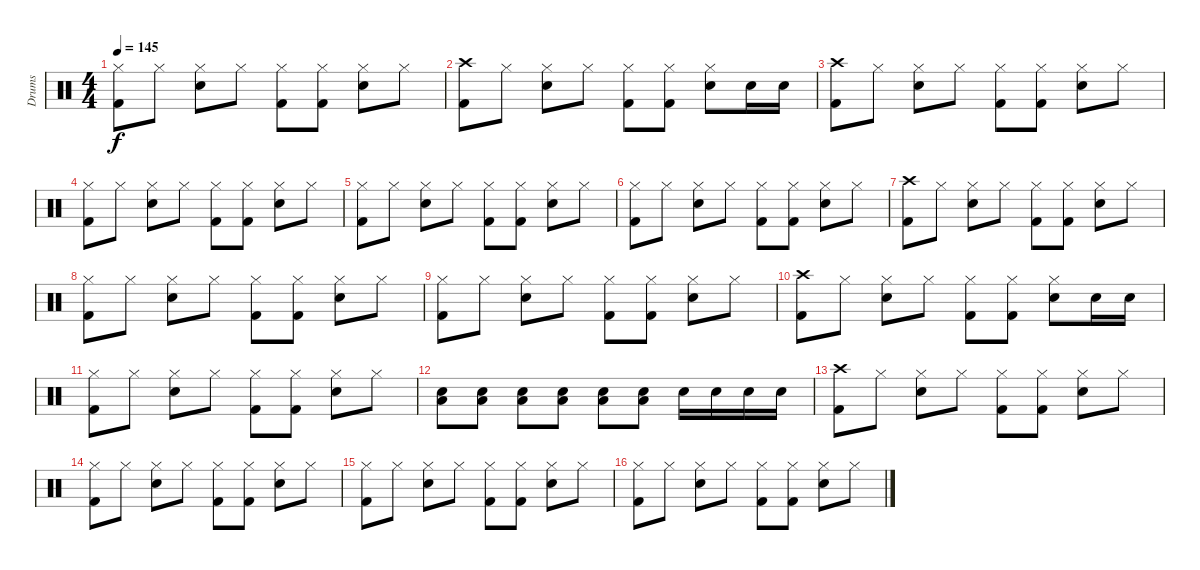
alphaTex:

\track ("Drums" "Drums") {instrument percussion}
\staff {score}
\articulation defaults
\ts (4 4)
\tempo 145
\clef neutral
\ks c
("Hi-Hat (closed)" "Kick (hit) 2").8{dy f} "Hi-Hat (closed)".8 ("Hi-Hat (closed)" "Electric Snare (hit)").8 "Hi-Hat (closed)".8 ("Hi-Hat (closed)" "Kick (hit) 2").8 ("Hi-Hat (closed)" "Kick (hit) 2").8 ("Hi-Hat (closed)" "Electric Snare (hit)").8 "Hi-Hat (closed)".8 |
("Crash high (hit)" "Kick (hit) 2").8 "Hi-Hat (closed)".8 ("Hi-Hat (closed)" "Electric Snare (hit)").8 "Hi-Hat (closed)".8 ("Hi-Hat (closed)" "Kick (hit) 2").8 ("Hi-Hat (closed)" "Kick (hit) 2").8 ("Hi-Hat (closed)" "Electric Snare (hit)").8 "Electric Snare (hit)".16 "Electric Snare (hit)".16 |
("Crash high (hit)" "Kick (hit) 2").8 "Hi-Hat (closed)".8 ("Hi-Hat (closed)" "Electric Snare (hit)").8 "Hi-Hat (closed)".8 ("Hi-Hat (closed)" "Kick (hit) 2").8 ("Hi-Hat (closed)" "Kick (hit) 2").8 ("Hi-Hat (closed)" "Electric Snare (hit)").8 "Hi-Hat (closed)".8 |
("Hi-Hat (closed)" "Kick (hit) 2").8 "Hi-Hat (closed)".8 ("Hi-Hat (closed)" "Electric Snare (hit)").8 "Hi-Hat (closed)".8 ("Hi-Hat (closed)" "Kick (hit) 2").8 ("Hi-Hat (closed)" "Kick (hit) 2").8 ("Hi-Hat (closed)" "Electric Snare (hit)").8 "Hi-Hat (closed)".8 |
("Hi-Hat (closed)" "Kick (hit) 2").8 "Hi-Hat (closed)".8 ("Hi-Hat (closed)" "Electric Snare (hit)").8 "Hi-Hat (closed)".8 ("Hi-Hat (closed)" "Kick (hit) 2").8 ("Hi-Hat (closed)" "Kick (hit) 2").8 ("Hi-Hat (closed)" "Electric Snare (hit)").8 "Hi-Hat (closed)".8 |
("Hi-Hat (closed)" "Kick (hit) 2").8 "Hi-Hat (closed)".8 ("Hi-Hat (closed)" "Electric Snare (hit)").8 "Hi-Hat (closed)".8 ("Hi-Hat (closed)" "Kick (hit) 2").8 ("Hi-Hat (closed)" "Kick (hit) 2").8 ("Hi-Hat (closed)" "Electric Snare (hit)").8 "Hi-Hat (closed)".8 |
("Crash high (hit)" "Kick (hit) 2").8 "Hi-Hat (closed)".8 ("Hi-Hat (closed)" "Electric Snare (hit)").8 "Hi-Hat (closed)".8 ("Hi-Hat (closed)" "Kick (hit) 2").8 ("Hi-Hat (closed)" "Kick (hit) 2").8 ("Hi-Hat (closed)" "Electric Snare (hit)").8 "Hi-Hat (closed)".8 |
("Hi-Hat (closed)" "Kick (hit) 2").8 "Hi-Hat (closed)".8 ("Hi-Hat (closed)" "Electric Snare (hit)").8 "Hi-Hat (closed)".8 ("Hi-Hat (closed)" "Kick (hit) 2").8 ("Hi-Hat (closed)" "Kick (hit) 2").8 ("Hi-Hat (closed)" "Electric Snare (hit)").8 "Hi-Hat (closed)".8 |
("Hi-Hat (closed)" "Kick (hit) 2").8 "Hi-Hat (closed)".8 ("Hi-Hat (closed)" "Electric Snare (hit)").8 "Hi-Hat (closed)".8 ("Hi-Hat (closed)" "Kick (hit) 2").8 ("Hi-Hat (closed)" "Kick (hit) 2").8 ("Hi-Hat (closed)" "Electric Snare (hit)").8 "Hi-Hat (closed)".8 |
("Crash high (hit)" "Kick (hit) 2").8 "Hi-Hat (closed)".8 ("Hi-Hat (closed)" "Electric Snare (hit)").8 "Hi-Hat (closed)".8 ("Hi-Hat (closed)" "Kick (hit) 2").8 ("Hi-Hat (closed)" "Kick (hit) 2").8 ("Hi-Hat (closed)" "Electric Snare (hit)").8 "Electric Snare (hit)".16 "Electric Snare (hit)".16 |
("Hi-Hat (closed)" "Kick (hit) 2").8 "Hi-Hat (closed)".8 ("Hi-Hat (closed)" "Electric Snare (hit)").8 "Hi-Hat (closed)".8 ("Hi-Hat (closed)" "Kick (hit) 2").8 ("Hi-Hat (closed)" "Kick (hit) 2").8 ("Hi-Hat (closed)" "Electric Snare (hit)").8 "Hi-Hat (closed)".8 |
("Electric Snare (hit)" "Low Floor Tom (hit)").8 ("Electric Snare (hit)" "Low Floor Tom (hit)").8 ("Electric Snare (hit)" "Low Floor Tom (hit)").8 ("Electric Snare (hit)" "Low Floor Tom (hit)").8 ("Electric Snare (hit)" "Low Floor Tom (hit)").8 ("Electric Snare (hit)" "Low Floor Tom (hit)").8 "Electric Snare (hit)".16 "Electric Snare (hit)".16 "Electric Snare (hit)".16 "Electric Snare (hit)".16 |
("Crash high (hit)" "Kick (hit) 2").8 "Hi-Hat (closed)".8 ("Hi-Hat (closed)" "Electric Snare (hit)").8 "Hi-Hat (closed)".8 ("Hi-Hat (closed)" "Kick (hit) 2").8 ("Hi-Hat (closed)" "Kick (hit) 2").8 ("Hi-Hat (closed)" "Electric Snare (hit)").8 "Hi-Hat (closed)".8 |
("Hi-Hat (closed)" "Kick (hit) 2").8 "Hi-Hat (closed)".8 ("Hi-Hat (closed)" "Electric Snare (hit)").8 "Hi-Hat (closed)".8 ("Hi-Hat (closed)" "Kick (hit) 2").8 ("Hi-Hat (closed)" "Kick (hit) 2").8 ("Hi-Hat (closed)" "Electric Snare (hit)").8 "Hi-Hat (closed)".8 |
("Hi-Hat (closed)" "Kick (hit) 2").8 "Hi-Hat (closed)".8 ("Hi-Hat (closed)" "Electric Snare (hit)").8 "Hi-Hat (closed)".8 ("Hi-Hat (closed)" "Kick (hit) 2").8 ("Hi-Hat (closed)" "Kick (hit) 2").8 ("Hi-Hat (closed)" "Electric Snare (hit)").8 "Hi-Hat (closed)".8 |
("Hi-Hat (closed)" "Kick (hit) 2").8 "Hi-Hat (closed)".8 ("Hi-Hat (closed)" "Electric Snare (hit)").8 "Hi-Hat (closed)".8 ("Hi-Hat (closed)" "Kick (hit) 2").8 ("Hi-Hat (closed)" "Kick (hit) 2").8 ("Hi-Hat (closed)" "Electric Snare (hit)").8 "Hi-Hat (closed)".8
